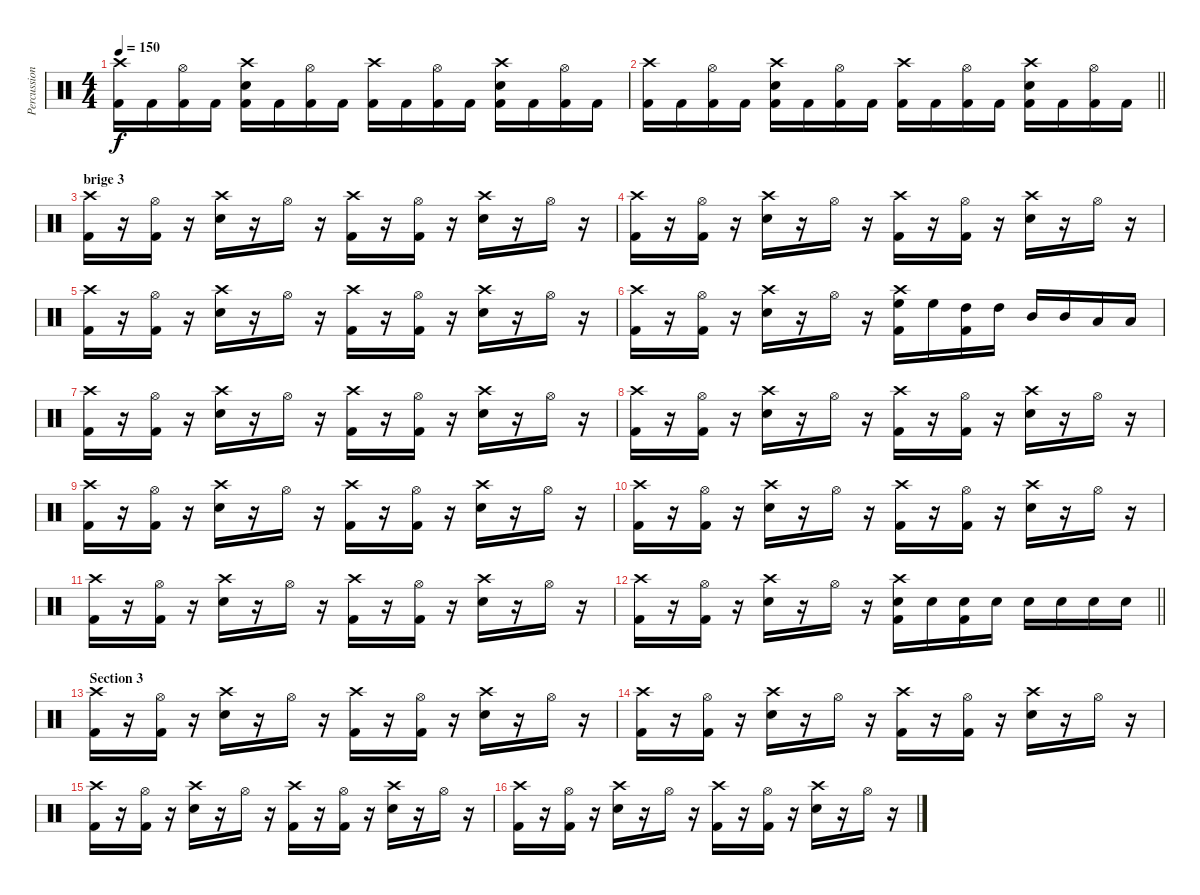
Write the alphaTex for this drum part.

\track ("Percussion" "Percussion") {instrument percussion}
\staff {score}
\articulation defaults
\ts (4 4)
\tempo 150
\clef neutral
\ks c
("Crash high (hit)" "Kick (hit) 2").16{dy f} "Kick (hit) 2".16 ("Hi-Hat (open)" "Kick (hit) 2").16 "Kick (hit) 2".16 ("Crash high (hit)" "Snare (hit) 2" "Kick (hit) 2").16 "Kick (hit) 2".16 ("Hi-Hat (open)" "Kick (hit) 2").16 "Kick (hit) 2".16 ("Crash high (hit)" "Kick (hit) 2").16 "Kick (hit) 2".16 ("Hi-Hat (open)" "Kick (hit) 2").16 "Kick (hit) 2".16 ("Crash high (hit)" "Snare (hit) 2" "Kick (hit) 2").16 "Kick (hit) 2".16 ("Hi-Hat (open)" "Kick (hit) 2").16 "Kick (hit) 2".16 |
\barLineRight lightlight
("Crash high (hit)" "Kick (hit) 2").16 "Kick (hit) 2".16 ("Hi-Hat (open)" "Kick (hit) 2").16 "Kick (hit) 2".16 ("Crash high (hit)" "Snare (hit) 2" "Kick (hit) 2").16 "Kick (hit) 2".16 ("Hi-Hat (open)" "Kick (hit) 2").16 "Kick (hit) 2".16 ("Crash high (hit)" "Kick (hit) 2").16 "Kick (hit) 2".16 ("Hi-Hat (open)" "Kick (hit) 2").16 "Kick (hit) 2".16 ("Crash high (hit)" "Snare (hit) 2" "Kick (hit) 2").16 "Kick (hit) 2".16 ("Hi-Hat (open)" "Kick (hit) 2").16 "Kick (hit) 2".16 |
\section ("" "brige 3")
("Crash high (hit)" "Kick (hit) 2").16 r.16 ("Hi-Hat (open)" "Kick (hit) 2").16 r.16 ("Crash high (hit)" "Snare (hit) 2").16 r.16 "Hi-Hat (open)".16 r.16 ("Crash high (hit)" "Kick (hit) 2").16 r.16 ("Hi-Hat (open)" "Kick (hit) 2").16 r.16 ("Crash high (hit)" "Snare (hit) 2").16 r.16 "Hi-Hat (open)".16 r.16 |
("Crash high (hit)" "Kick (hit) 2").16 r.16 ("Hi-Hat (open)" "Kick (hit) 2").16 r.16 ("Crash high (hit)" "Snare (hit) 2").16 r.16 "Hi-Hat (open)".16 r.16 ("Crash high (hit)" "Kick (hit) 2").16 r.16 ("Hi-Hat (open)" "Kick (hit) 2").16 r.16 ("Crash high (hit)" "Snare (hit) 2").16 r.16 "Hi-Hat (open)".16 r.16 |
("Crash high (hit)" "Kick (hit) 2").16 r.16 ("Hi-Hat (open)" "Kick (hit) 2").16 r.16 ("Crash high (hit)" "Snare (hit) 2").16 r.16 "Hi-Hat (open)".16 r.16 ("Crash high (hit)" "Kick (hit) 2").16 r.16 ("Hi-Hat (open)" "Kick (hit) 2").16 r.16 ("Crash high (hit)" "Snare (hit) 2").16 r.16 "Hi-Hat (open)".16 r.16 |
("Crash high (hit)" "Kick (hit) 2").16 r.16 ("Hi-Hat (open)" "Kick (hit) 2").16 r.16 ("Crash high (hit)" "Snare (hit) 2").16 r.16 "Hi-Hat (open)".16 r.16 ("Crash high (hit)" "High Floor Tom (hit)" "Kick (hit) 2").16 "High Floor Tom (hit)".16 ("High Tom (hit)" "Kick (hit) 2").16 "High Tom (hit)".16 "Mid Tom (hit)".16 "Mid Tom (hit)".16 "Low Tom (hit)".16 "Low Tom (hit)".16 |
("Crash high (hit)" "Kick (hit) 2").16 r.16 ("Hi-Hat (open)" "Kick (hit) 2").16 r.16 ("Crash high (hit)" "Snare (hit) 2").16 r.16 "Hi-Hat (open)".16 r.16 ("Crash high (hit)" "Kick (hit) 2").16 r.16 ("Hi-Hat (open)" "Kick (hit) 2").16 r.16 ("Crash high (hit)" "Snare (hit) 2").16 r.16 "Hi-Hat (open)".16 r.16 |
("Crash high (hit)" "Kick (hit) 2").16 r.16 ("Hi-Hat (open)" "Kick (hit) 2").16 r.16 ("Crash high (hit)" "Snare (hit) 2").16 r.16 "Hi-Hat (open)".16 r.16 ("Crash high (hit)" "Kick (hit) 2").16 r.16 ("Hi-Hat (open)" "Kick (hit) 2").16 r.16 ("Crash high (hit)" "Snare (hit) 2").16 r.16 "Hi-Hat (open)".16 r.16 |
("Crash high (hit)" "Kick (hit) 2").16 r.16 ("Hi-Hat (open)" "Kick (hit) 2").16 r.16 ("Crash high (hit)" "Snare (hit) 2").16 r.16 "Hi-Hat (open)".16 r.16 ("Crash high (hit)" "Kick (hit) 2").16 r.16 ("Hi-Hat (open)" "Kick (hit) 2").16 r.16 ("Crash high (hit)" "Snare (hit) 2").16 r.16 "Hi-Hat (open)".16 r.16 |
("Crash high (hit)" "Kick (hit) 2").16 r.16 ("Hi-Hat (open)" "Kick (hit) 2").16 r.16 ("Crash high (hit)" "Snare (hit) 2").16 r.16 "Hi-Hat (open)".16 r.16 ("Crash high (hit)" "Kick (hit) 2").16 r.16 ("Hi-Hat (open)" "Kick (hit) 2").16 r.16 ("Crash high (hit)" "Snare (hit) 2").16 r.16 "Hi-Hat (open)".16 r.16 |
("Crash high (hit)" "Kick (hit) 2").16 r.16 ("Hi-Hat (open)" "Kick (hit) 2").16 r.16 ("Crash high (hit)" "Snare (hit) 2").16 r.16 "Hi-Hat (open)".16 r.16 ("Crash high (hit)" "Kick (hit) 2").16 r.16 ("Hi-Hat (open)" "Kick (hit) 2").16 r.16 ("Crash high (hit)" "Snare (hit) 2").16 r.16 "Hi-Hat (open)".16 r.16 |
\barLineRight lightlight
("Crash high (hit)" "Kick (hit) 2").16 r.16 ("Hi-Hat (open)" "Kick (hit) 2").16 r.16 ("Crash high (hit)" "Snare (hit) 2").16 r.16 "Hi-Hat (open)".16 r.16 ("Crash high (hit)" "Snare (hit) 2" "Kick (hit) 2").16 "Snare (hit) 2".16 ("Snare (hit) 2" "Kick (hit) 2").16 "Snare (hit) 2".16 "Snare (hit) 2".16 "Snare (hit) 2".16 "Snare (hit) 2".16 "Snare (hit) 2".16 |
\section ("" "Section 3")
("Crash high (hit)" "Kick (hit) 2").16 r.16 ("Hi-Hat (open)" "Kick (hit) 2").16 r.16 ("Crash high (hit)" "Snare (hit) 2").16 r.16 "Hi-Hat (open)".16 r.16 ("Crash high (hit)" "Kick (hit) 2").16 r.16 ("Hi-Hat (open)" "Kick (hit) 2").16 r.16 ("Crash high (hit)" "Snare (hit) 2").16 r.16 "Hi-Hat (open)".16 r.16 |
("Crash high (hit)" "Kick (hit) 2").16 r.16 ("Hi-Hat (open)" "Kick (hit) 2").16 r.16 ("Crash high (hit)" "Snare (hit) 2").16 r.16 "Hi-Hat (open)".16 r.16 ("Crash high (hit)" "Kick (hit) 2").16 r.16 ("Hi-Hat (open)" "Kick (hit) 2").16 r.16 ("Crash high (hit)" "Snare (hit) 2").16 r.16 "Hi-Hat (open)".16 r.16 |
("Crash high (hit)" "Kick (hit) 2").16 r.16 ("Hi-Hat (open)" "Kick (hit) 2").16 r.16 ("Crash high (hit)" "Snare (hit) 2").16 r.16 "Hi-Hat (open)".16 r.16 ("Crash high (hit)" "Kick (hit) 2").16 r.16 ("Hi-Hat (open)" "Kick (hit) 2").16 r.16 ("Crash high (hit)" "Snare (hit) 2").16 r.16 "Hi-Hat (open)".16 r.16 |
("Crash high (hit)" "Kick (hit) 2").16 r.16 ("Hi-Hat (open)" "Kick (hit) 2").16 r.16 ("Crash high (hit)" "Snare (hit) 2").16 r.16 "Hi-Hat (open)".16 r.16 ("Crash high (hit)" "Kick (hit) 2").16 r.16 ("Hi-Hat (open)" "Kick (hit) 2").16 r.16 ("Crash high (hit)" "Snare (hit) 2").16 r.16 "Hi-Hat (open)".16 r.16
